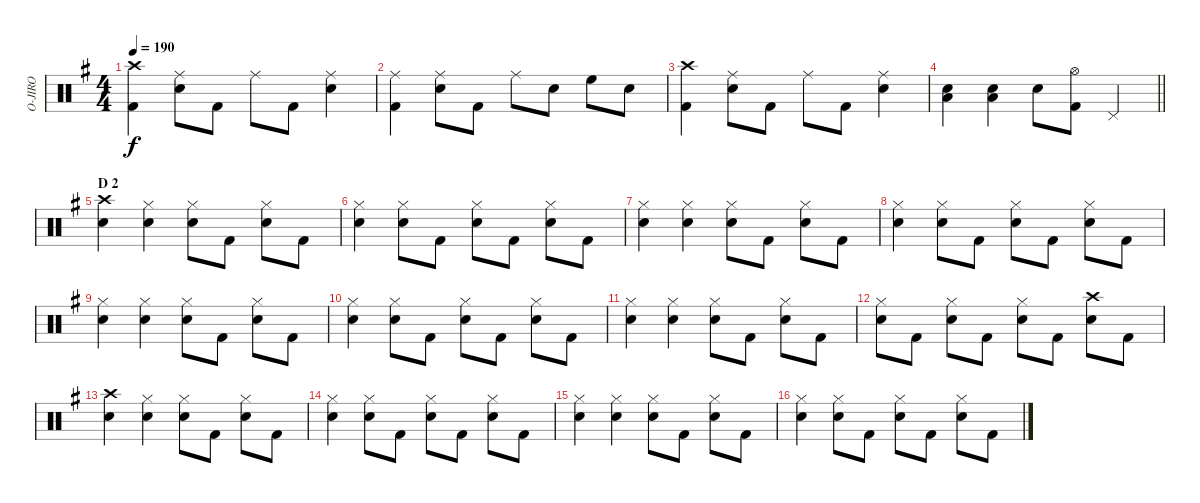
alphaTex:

\track ("O-JIRO" "O-JIRO") {instrument percussion}
\staff {score}
\articulation defaults
\ts (4 4)
\tempo 190
\clef neutral
\ks g
("Crash high (hit)" "Kick (hit) 2").4{dy f} ("Ride (middle)" "Snare (hit) 2").8 "Kick (hit) 2".8 "Ride (middle)".8 "Kick (hit) 2".8 ("Ride (middle)" "Snare (hit) 2").4 |
("Ride (middle)" "Kick (hit) 2").4 ("Ride (middle)" "Snare (hit) 2").8 "Kick (hit) 2".8 "Ride (middle)".8 "Snare (hit) 2".8 "High Floor Tom (hit)".8 "Snare (hit) 2".8 |
("Crash high (hit)" "Kick (hit) 2").4 ("Ride (middle)" "Snare (hit) 2").8 "Kick (hit) 2".8 "Ride (middle)".8 "Kick (hit) 2".8 ("Ride (middle)" "Snare (hit) 2").4 |
\barLineRight lightlight
("Snare (hit) 2" "Low Tom (hit)").4 ("Snare (hit) 2" "Low Tom (hit)").4 "Snare (hit) 2".8 ("Hi-Hat (open)" "Kick (hit) 2").8 "Pedal Hi-Hat (hit)".4 |
\section ("" "D 2")
("Crash high (hit)" "Snare (hit) 2").4 ("Hi-Hat (closed)" "Snare (hit) 2").4 ("Hi-Hat (closed)" "Snare (hit) 2").8 "Kick (hit) 2".8 ("Hi-Hat (closed)" "Snare (hit) 2").8 "Kick (hit) 2".8 |
("Hi-Hat (closed)" "Snare (hit) 2").4 ("Hi-Hat (closed)" "Snare (hit) 2").8 "Kick (hit) 2".8 ("Hi-Hat (closed)" "Snare (hit) 2").8 "Kick (hit) 2".8 ("Hi-Hat (closed)" "Snare (hit) 2").8 "Kick (hit) 2".8 |
("Hi-Hat (closed)" "Snare (hit) 2").4 ("Hi-Hat (closed)" "Snare (hit) 2").4 ("Hi-Hat (closed)" "Snare (hit) 2").8 "Kick (hit) 2".8 ("Hi-Hat (closed)" "Snare (hit) 2").8 "Kick (hit) 2".8 |
("Hi-Hat (closed)" "Snare (hit) 2").4 ("Hi-Hat (closed)" "Snare (hit) 2").8 "Kick (hit) 2".8 ("Hi-Hat (closed)" "Snare (hit) 2").8 "Kick (hit) 2".8 ("Hi-Hat (closed)" "Snare (hit) 2").8 "Kick (hit) 2".8 |
("Hi-Hat (closed)" "Snare (hit) 2").4 ("Hi-Hat (closed)" "Snare (hit) 2").4 ("Hi-Hat (closed)" "Snare (hit) 2").8 "Kick (hit) 2".8 ("Hi-Hat (closed)" "Snare (hit) 2").8 "Kick (hit) 2".8 |
("Hi-Hat (closed)" "Snare (hit) 2").4 ("Hi-Hat (closed)" "Snare (hit) 2").8 "Kick (hit) 2".8 ("Hi-Hat (closed)" "Snare (hit) 2").8 "Kick (hit) 2".8 ("Hi-Hat (closed)" "Snare (hit) 2").8 "Kick (hit) 2".8 |
("Hi-Hat (closed)" "Snare (hit) 2").4 ("Hi-Hat (closed)" "Snare (hit) 2").4 ("Hi-Hat (closed)" "Snare (hit) 2").8 "Kick (hit) 2".8 ("Hi-Hat (closed)" "Snare (hit) 2").8 "Kick (hit) 2".8 |
("Hi-Hat (closed)" "Snare (hit) 2").8 "Kick (hit) 2".8 ("Hi-Hat (closed)" "Snare (hit) 2").8 "Kick (hit) 2".8 ("Hi-Hat (closed)" "Snare (hit) 2").8 "Kick (hit) 2".8 ("Crash high (hit)" "Snare (hit) 2").8 "Kick (hit) 2".8 |
("Crash high (hit)" "Snare (hit) 2").4 ("Hi-Hat (closed)" "Snare (hit) 2").4 ("Hi-Hat (closed)" "Snare (hit) 2").8 "Kick (hit) 2".8 ("Hi-Hat (closed)" "Snare (hit) 2").8 "Kick (hit) 2".8 |
("Hi-Hat (closed)" "Snare (hit) 2").4 ("Hi-Hat (closed)" "Snare (hit) 2").8 "Kick (hit) 2".8 ("Hi-Hat (closed)" "Snare (hit) 2").8 "Kick (hit) 2".8 ("Hi-Hat (closed)" "Snare (hit) 2").8 "Kick (hit) 2".8 |
("Hi-Hat (closed)" "Snare (hit) 2").4 ("Hi-Hat (closed)" "Snare (hit) 2").4 ("Hi-Hat (closed)" "Snare (hit) 2").8 "Kick (hit) 2".8 ("Hi-Hat (closed)" "Snare (hit) 2").8 "Kick (hit) 2".8 |
("Hi-Hat (closed)" "Snare (hit) 2").4 ("Hi-Hat (closed)" "Snare (hit) 2").8 "Kick (hit) 2".8 ("Hi-Hat (closed)" "Snare (hit) 2").8 "Kick (hit) 2".8 ("Hi-Hat (closed)" "Snare (hit) 2").8 "Kick (hit) 2".8
